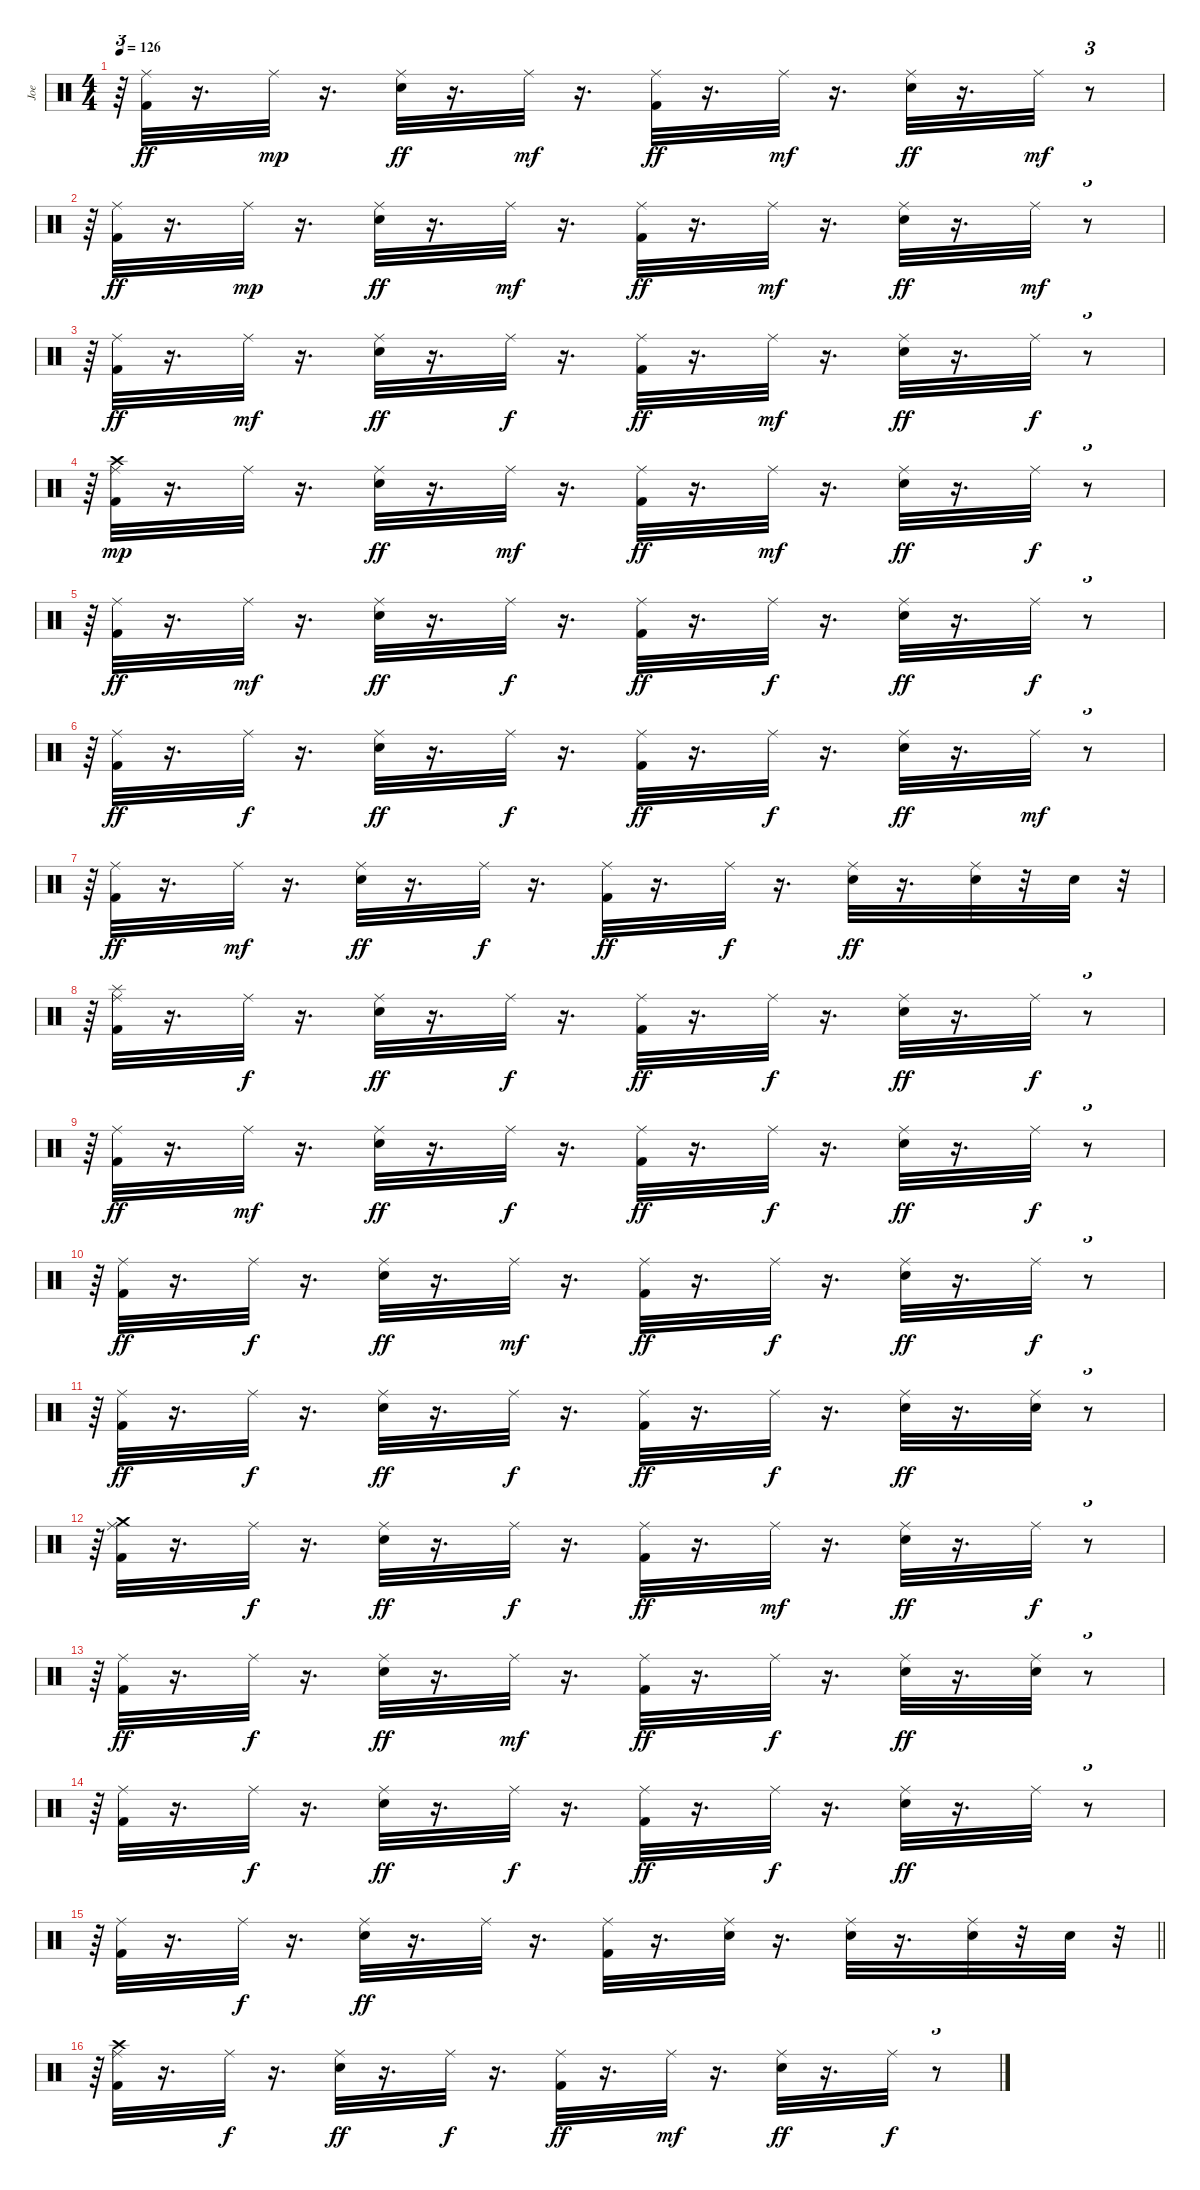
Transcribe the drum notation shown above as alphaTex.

\track ("Joe" "Joe") {instrument percussion}
\staff {score}
\articulation defaults
\ts (4 4)
\tempo 126
\clef neutral
\ks c
r.64{tu (3 2) dy mf} ("Kick (hit) 2" "Ride (middle)").32{dy ff} r.16{d} "Ride (middle)".32{dy mp} r.16{d} ("Electric Snare (hit)" "Ride (middle)").32{dy ff} r.16{d} "Ride (middle)".32{dy mf} r.16{d} ("Ride (middle)" "Kick (hit) 2").32{dy ff} r.16{d} "Ride (middle)".32{dy mf} r.16{d} ("Electric Snare (hit)" "Ride (middle)").32{dy ff} r.16{d} "Ride (middle)".32{dy mf} r.8{tu (3 2)} |
r.64{tu (3 2)} ("Ride (middle)" "Kick (hit) 2").32{dy ff} r.16{d} "Ride (middle)".32{dy mp} r.16{d} ("Ride (middle)" "Electric Snare (hit)").32{dy ff} r.16{d} "Ride (middle)".32{dy mf} r.16{d} ("Kick (hit) 2" "Ride (middle)").32{dy ff} r.16{d} "Ride (middle)".32{dy mf} r.16{d} ("Electric Snare (hit)" "Ride (middle)").32{dy ff} r.16{d} "Ride (middle)".32{dy mf} r.8{tu (3 2)} |
r.64{tu (3 2)} ("Kick (hit) 2" "Ride (middle)").32{dy ff} r.16{d} "Ride (middle)".32{dy mf} r.16{d} ("Electric Snare (hit)" "Ride (middle)").32{dy ff} r.16{d} "Ride (middle)".32{dy f} r.16{d} ("Kick (hit) 2" "Ride (middle)").32{dy ff} r.16{d} "Ride (middle)".32{dy mf} r.16{d} ("Electric Snare (hit)" "Ride (middle)").32{dy ff} r.16{d} "Ride (middle)".32{dy f} r.8{tu (3 2)} |
r.64{tu (3 2)} ("Kick (hit) 2" "Ride (middle)" "Crash high (hit)").32{dy mp} r.16{d} "Ride (middle)".32 r.16{d} ("Electric Snare (hit)" "Ride (middle)").32{dy ff} r.16{d} "Ride (middle)".32{dy mf} r.16{d} ("Kick (hit) 2" "Ride (middle)").32{dy ff} r.16{d} "Ride (middle)".32{dy mf} r.16{d} ("Ride (middle)" "Electric Snare (hit)").32{dy ff} r.16{d} "Ride (middle)".32{dy f} r.8{tu (3 2)} |
r.64{tu (3 2)} ("Ride (middle)" "Kick (hit) 2").32{dy ff} r.16{d} "Ride (middle)".32{dy mf} r.16{d} ("Ride (middle)" "Electric Snare (hit)").32{dy ff} r.16{d} "Ride (middle)".32{dy f} r.16{d} ("Kick (hit) 2" "Ride (middle)").32{dy ff} r.16{d} "Ride (middle)".32{dy f} r.16{d} ("Electric Snare (hit)" "Ride (middle)").32{dy ff} r.16{d} "Ride (middle)".32{dy f} r.8{tu (3 2)} |
r.64{tu (3 2)} ("Kick (hit) 2" "Ride (middle)").32{dy ff} r.16{d} "Ride (middle)".32{dy f} r.16{d} ("Electric Snare (hit)" "Ride (middle)").32{dy ff} r.16{d} "Ride (middle)".32{dy f} r.16{d} ("Ride (middle)" "Kick (hit) 2").32{dy ff} r.16{d} "Ride (middle)".32{dy f} r.16{d} ("Electric Snare (hit)" "Ride (middle)").32{dy ff} r.16{d} "Ride (middle)".32{dy mf} r.8{tu (3 2)} |
r.64{tu (3 2)} ("Kick (hit) 2" "Ride (middle)").32{dy ff} r.16{d} "Ride (middle)".32{dy mf} r.16{d} ("Electric Snare (hit)" "Ride (middle)").32{dy ff} r.16{d} "Ride (middle)".32{dy f} r.16{d} ("Ride (middle)" "Kick (hit) 2").32{dy ff} r.16{d} "Ride (middle)".32{dy f} r.16{d} ("Electric Snare (hit)" "Ride (middle)").32{dy ff} r.16{d} ("Ride (middle)" "Electric Snare (hit)").32 r.32 "Electric Snare (hit)".32 r.32{tu (3 2)} |
r.64{tu (3 2)} ("Ride (middle)" "Kick (hit) 2" "Splash (hit)").32 r.16{d} "Ride (middle)".32{dy f} r.16{d} ("Ride (middle)" "Electric Snare (hit)").32{dy ff} r.16{d} "Ride (middle)".32{dy f} r.16{d} ("Ride (middle)" "Kick (hit) 2").32{dy ff} r.16{d} "Ride (middle)".32{dy f} r.16{d} ("Electric Snare (hit)" "Ride (middle)").32{dy ff} r.16{d} "Ride (middle)".32{dy f} r.8{tu (3 2)} |
r.64{tu (3 2)} ("Kick (hit) 2" "Ride (middle)").32{dy ff} r.16{d} "Ride (middle)".32{dy mf} r.16{d} ("Electric Snare (hit)" "Ride (middle)").32{dy ff} r.16{d} "Ride (middle)".32{dy f} r.16{d} ("Kick (hit) 2" "Ride (middle)").32{dy ff} r.16{d} "Ride (middle)".32{dy f} r.16{d} ("Electric Snare (hit)" "Ride (middle)").32{dy ff} r.16{d} "Ride (middle)".32{dy f} r.8{tu (3 2)} |
r.64{tu (3 2)} ("Kick (hit) 2" "Ride (middle)").32{dy ff} r.16{d} "Ride (middle)".32{dy f} r.16{d} ("Electric Snare (hit)" "Ride (middle)").32{dy ff} r.16{d} "Ride (middle)".32{dy mf} r.16{d} ("Ride (middle)" "Kick (hit) 2").32{dy ff} r.16{d} "Ride (middle)".32{dy f} r.16{d} ("Electric Snare (hit)" "Ride (middle)").32{dy ff} r.16{d} "Ride (middle)".32{dy f} r.8{tu (3 2)} |
r.64{tu (3 2)} ("Ride (middle)" "Kick (hit) 2").32{dy ff} r.16{d} "Ride (middle)".32{dy f} r.16{d} ("Ride (middle)" "Electric Snare (hit)").32{dy ff} r.16{d} "Ride (middle)".32{dy f} r.16{d} ("Ride (middle)" "Kick (hit) 2").32{dy ff} r.16{d} "Ride (middle)".32{dy f} r.16{d} ("Ride (middle)" "Electric Snare (hit)").32{dy ff} r.16{d} ("Ride (middle)" "Electric Snare (hit)").32 r.8{tu (3 2)} |
r.64{tu (3 2)} ("Crash medium (hit)" "Kick (hit) 2" "Ride (middle)").32 r.16{d} "Ride (middle)".32{dy f} r.16{d} ("Electric Snare (hit)" "Ride (middle)").32{dy ff} r.16{d} "Ride (middle)".32{dy f} r.16{d} ("Kick (hit) 2" "Ride (middle)").32{dy ff} r.16{d} "Ride (middle)".32{dy mf} r.16{d} ("Electric Snare (hit)" "Ride (middle)").32{dy ff} r.16{d} "Ride (middle)".32{dy f} r.8{tu (3 2)} |
r.64{tu (3 2)} ("Ride (middle)" "Kick (hit) 2").32{dy ff} r.16{d} "Ride (middle)".32{dy f} r.16{d} ("Electric Snare (hit)" "Ride (middle)").32{dy ff} r.16{d} "Ride (middle)".32{dy mf} r.16{d} ("Kick (hit) 2" "Ride (middle)").32{dy ff} r.16{d} "Ride (middle)".32{dy f} r.16{d} ("Electric Snare (hit)" "Ride (middle)").32{dy ff} r.16{d} ("Ride (middle)" "Electric Snare (hit)").32 r.8{tu (3 2)} |
r.64{tu (3 2)} ("Ride (middle)" "Kick (hit) 2").32 r.16{d} "Ride (middle)".32{dy f} r.16{d} ("Ride (middle)" "Electric Snare (hit)").32{dy ff} r.16{d} "Ride (middle)".32{dy f} r.16{d} ("Ride (middle)" "Kick (hit) 2").32{dy ff} r.16{d} "Ride (middle)".32{dy f} r.16{d} ("Electric Snare (hit)" "Ride (middle)").32{dy ff} r.16{d} "Ride (middle)".32 r.8{tu (3 2)} |
\barLineRight lightlight
r.64{tu (3 2)} ("Kick (hit) 2" "Ride (middle)").32 r.16{d} "Ride (middle)".32{dy f} r.16{d} ("Electric Snare (hit)" "Ride (middle)").32{dy ff} r.16{d} "Ride (middle)".32 r.16{d} ("Kick (hit) 2" "Ride (middle)").32 r.16{d} ("Electric Snare (hit)" "Ride (middle)").32 r.16{d} ("Electric Snare (hit)" "Ride (middle)").32 r.16{d} ("Ride (middle)" "Electric Snare (hit)").32 r.32 "Electric Snare (hit)".32 r.32{tu (3 2)} |
r.64{tu (3 2)} ("Crash high (hit)" "Kick (hit) 2" "Ride (middle)").32 r.16{d} "Ride (middle)".32{dy f} r.16{d} ("Ride (middle)" "Electric Snare (hit)").32{dy ff} r.16{d} "Ride (middle)".32{dy f} r.16{d} ("Ride (middle)" "Kick (hit) 2").32{dy ff} r.16{d} "Ride (middle)".32{dy mf} r.16{d} ("Ride (middle)" "Electric Snare (hit)").32{dy ff} r.16{d} "Ride (middle)".32{dy f} r.8{tu (3 2)}
